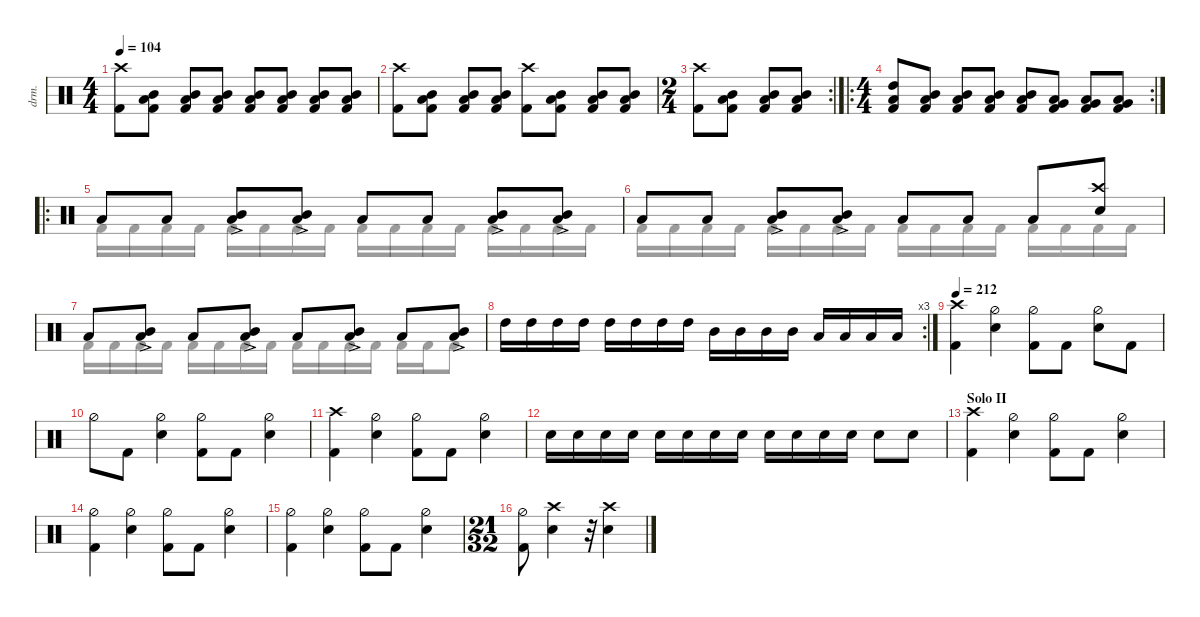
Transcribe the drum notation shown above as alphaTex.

\defaultSystemsLayout 4
\hideDynamics
\bracketExtendMode nobrackets
\track ("Drums" "drm.") {instrument percussion}
\staff {score}
\articulation defaults
\voice
\ts (4 4)
\tempo 104
\clef neutral
\ks c
("Kick (hit) 2" "Crash high (hit)").8{dy f} ("Low Tom (hit)" "Mid Tom (hit)" "Kick (hit) 2").8 ("Low Tom (hit)" "Mid Tom (hit)" "Kick (hit) 2").8 ("Low Tom (hit)" "Mid Tom (hit)" "Kick (hit) 2").8 ("Low Tom (hit)" "Mid Tom (hit)" "Kick (hit) 2").8 ("Low Tom (hit)" "Mid Tom (hit)" "Kick (hit) 2").8 ("Low Tom (hit)" "Mid Tom (hit)" "Kick (hit) 2").8 ("Low Tom (hit)" "Mid Tom (hit)" "Kick (hit) 2").8 |
("Kick (hit) 2" "Crash high (hit)").8 ("Low Tom (hit)" "Mid Tom (hit)" "Kick (hit) 2").8 ("Low Tom (hit)" "Mid Tom (hit)" "Kick (hit) 2").8 ("Low Tom (hit)" "Mid Tom (hit)" "Kick (hit) 2").8 ("Kick (hit) 2" "Crash high (hit)").8 ("Low Tom (hit)" "Mid Tom (hit)" "Kick (hit) 2").8 ("Low Tom (hit)" "Mid Tom (hit)" "Kick (hit) 2").8 ("Low Tom (hit)" "Mid Tom (hit)" "Kick (hit) 2").8 |
\rc 2
\ts (2 4)
\beaming (8 2 2 2 2)
("Kick (hit) 2" "Crash high (hit)").8 ("Low Tom (hit)" "Mid Tom (hit)" "Kick (hit) 2").8 ("Low Tom (hit)" "Mid Tom (hit)" "Kick (hit) 2").8 ("Low Tom (hit)" "Mid Tom (hit)" "Kick (hit) 2").8 |
\ro
\rc 2
\ts (4 4)
\beaming (8 2 2 2 2)
("Kick (hit) 2" "Low Tom (hit)" "High Tom (hit)").8 ("Kick (hit) 2" "Low Tom (hit)" "Mid Tom (hit)").8 ("Kick (hit) 2" "Low Tom (hit)" "Mid Tom (hit)").8 ("Kick (hit) 2" "Low Tom (hit)" "Mid Tom (hit)").8 ("Kick (hit) 2" "Low Tom (hit)" "Mid Tom (hit)").8 ("Kick (hit) 2" "Low Tom (hit)" "Very Low Tom (hit)").8 ("Kick (hit) 2" "Low Tom (hit)" "Very Low Tom (hit)").8 ("Kick (hit) 2" "Low Tom (hit)" "Very Low Tom (hit)").8 |
\ro "Low Tom (hit)".8{dy fff} "Low Tom (hit)".8
("Low Tom (hit)" "Mid Tom (hit)"{ac}).8 ("Low Tom (hit)" "Mid Tom (hit)"{ac}).8 "Low Tom (hit)".8 "Low Tom (hit)".8 ("Low Tom (hit)" "Mid Tom (hit)"{ac}).8 ("Low Tom (hit)" "Mid Tom (hit)"{ac}).8 |
"Low Tom (hit)".8 "Low Tom (hit)".8 ("Low Tom (hit)" "Mid Tom (hit)"{ac}).8 ("Low Tom (hit)" "Mid Tom (hit)"{ac}).8 "Low Tom (hit)".8 "Low Tom (hit)".8 "Low Tom (hit)".8 ("Snare (hit) 2" "Crash high (hit)").8{dy f} |
"Low Tom (hit)".8{dy fff} ("Low Tom (hit)" "Mid Tom (hit)"{ac}).8 "Low Tom (hit)".8 ("Low Tom (hit)" "Mid Tom (hit)"{ac}).8 "Low Tom (hit)".8 ("Low Tom (hit)" "Mid Tom (hit)"{ac}).8 "Low Tom (hit)".8 ("Low Tom (hit)" "Mid Tom (hit)"{ac}).8 |
\rc 3 "High Tom (hit)".16 "High Tom (hit)".16 "High Tom (hit)".16 "High Tom (hit)".16 "High Tom (hit)".16 "High Tom (hit)".16 "High Tom (hit)".16 "High Tom (hit)".16 "Mid Tom (hit)".16 "Mid Tom (hit)".16 "Mid Tom (hit)".16 "Mid Tom (hit)".16 "Low Tom (hit)".16 "Low Tom (hit)".16 "Low Tom (hit)".16 "Low Tom (hit)".16
|
\tempo 212
("Crash high (hit)" "Kick (hit) 2").4{dy f} ("Hi-Hat (half)" "Snare (hit) 2").4 ("Hi-Hat (half)" "Kick (hit) 2").8 "Kick (hit) 2".8 ("Hi-Hat (half)" "Snare (hit) 2").8 "Kick (hit) 2".8 |
"Hi-Hat (half)".8 "Kick (hit) 2".8 ("Hi-Hat (half)" "Snare (hit) 2").4 ("Hi-Hat (half)" "Kick (hit) 2").8 "Kick (hit) 2".8 ("Hi-Hat (half)" "Snare (hit) 2").4 |
("Crash high (hit)" "Kick (hit) 2").4 ("Hi-Hat (half)" "Snare (hit) 2").4 ("Hi-Hat (half)" "Kick (hit) 2").8 "Kick (hit) 2".8 ("Hi-Hat (half)" "Snare (hit) 2").4 |
"Snare (hit) 2".16 "Snare (hit) 2".16{dy mp} "Snare (hit) 2".16 "Snare (hit) 2".16{dy mf} "Snare (hit) 2".16{dy f} "Snare (hit) 2".16{dy mp} "Snare (hit) 2".16 "Snare (hit) 2".16{dy mf} "Snare (hit) 2".16{dy f} "Snare (hit) 2".16{dy mp} "Snare (hit) 2".16 "Snare (hit) 2".16{dy mf} "Snare (hit) 2".8{dy f} "Snare (hit) 2".8 |
\section ("" "Solo II")
("Crash high (hit)" "Kick (hit) 2").4 ("Hi-Hat (half)" "Snare (hit) 2").4 ("Hi-Hat (half)" "Kick (hit) 2").8 "Kick (hit) 2".8 ("Hi-Hat (half)" "Snare (hit) 2").4 |
("Kick (hit) 2" "Hi-Hat (half)").4 ("Hi-Hat (half)" "Snare (hit) 2").4 ("Hi-Hat (half)" "Kick (hit) 2").8 "Kick (hit) 2".8 ("Hi-Hat (half)" "Snare (hit) 2").4 |
("Kick (hit) 2" "Hi-Hat (half)").4 ("Hi-Hat (half)" "Snare (hit) 2").4 ("Hi-Hat (half)" "Kick (hit) 2").8 "Kick (hit) 2".8 ("Hi-Hat (half)" "Snare (hit) 2").4 |
\ts (21 32)
\beaming (8 2 2 2 2)
("Kick (hit) 2" "Hi-Hat (half)").8 ("Snare (hit) 2" "Crash high (hit)").4 r.32 ("Snare (hit) 2" "Crash high (hit)").4
\voice
\clef neutral
\ottava regular
\simile none
\ks c
|
|
|
|
"Kick (hit) 2".16 "Kick (hit) 2".16 "Kick (hit) 2".16 "Kick (hit) 2".16 "Kick (hit) 2".16 "Kick (hit) 2".16 "Kick (hit) 2".16 "Kick (hit) 2".16 "Kick (hit) 2".16 "Kick (hit) 2".16 "Kick (hit) 2".16 "Kick (hit) 2".16 "Kick (hit) 2".16 "Kick (hit) 2".16 "Kick (hit) 2".16 "Kick (hit) 2".16 |
"Kick (hit) 2".16 "Kick (hit) 2".16 "Kick (hit) 2".16 "Kick (hit) 2".16 "Kick (hit) 2".16 "Kick (hit) 2".16 "Kick (hit) 2".16 "Kick (hit) 2".16 "Kick (hit) 2".16 "Kick (hit) 2".16 "Kick (hit) 2".16 "Kick (hit) 2".16 "Kick (hit) 2".16 "Kick (hit) 2".16 "Kick (hit) 2".16 "Kick (hit) 2".16 |
"Kick (hit) 2".16 "Kick (hit) 2".16 "Kick (hit) 2".16 "Kick (hit) 2".16 "Kick (hit) 2".16 "Kick (hit) 2".16 "Kick (hit) 2".16 "Kick (hit) 2".16 "Kick (hit) 2".16 "Kick (hit) 2".16 "Kick (hit) 2".16 "Kick (hit) 2".16 "Kick (hit) 2".16 "Kick (hit) 2".16 "Kick (hit) 2".8 |
|
|
|
|
|
|
|
|
